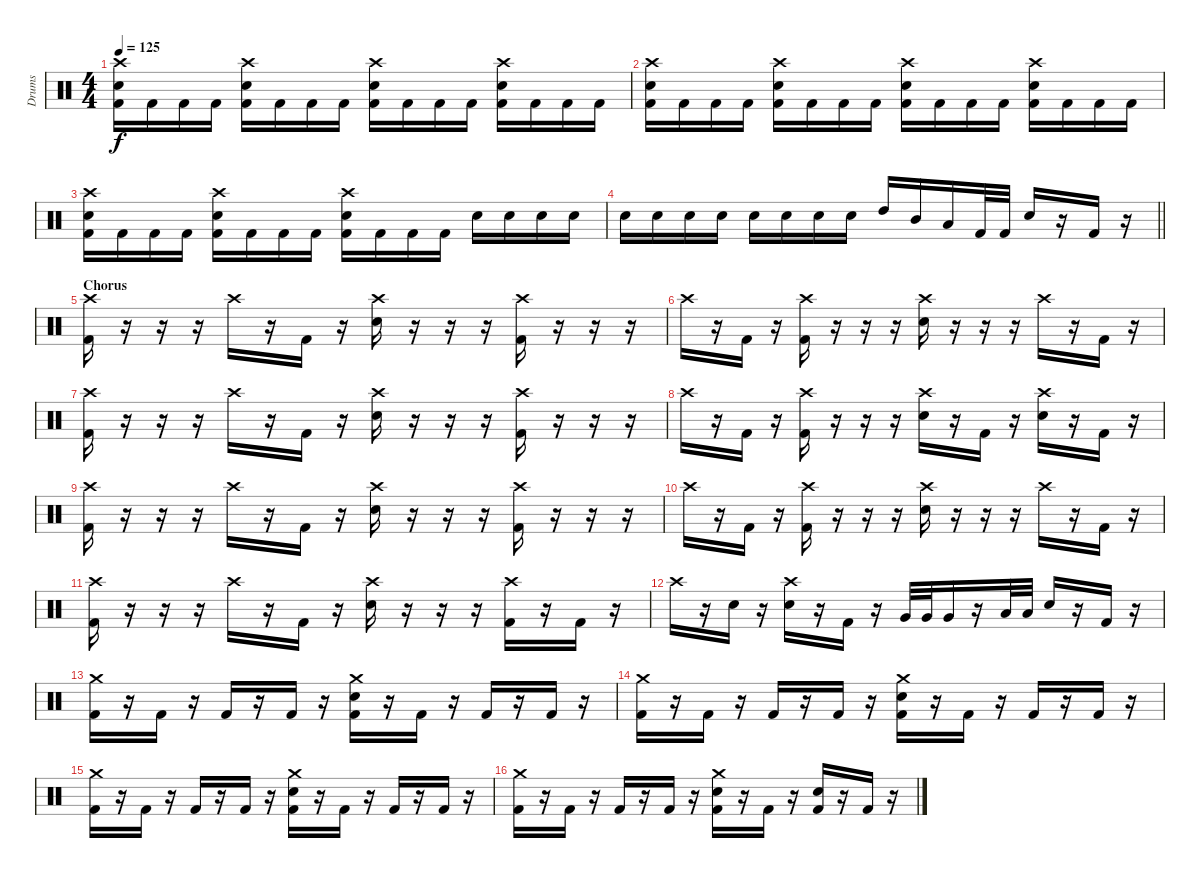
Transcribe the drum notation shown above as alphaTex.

\track ("Drums" "Drums") {instrument percussion}
\staff {score}
\articulation defaults
\ts (4 4)
\tempo 125
\clef neutral
\ks c
("Crash high (hit)" "Electric Snare (hit)" "Kick (hit) 2").16{dy f} "Kick (hit) 2".16 "Kick (hit) 2".16 "Kick (hit) 2".16 ("Crash high (hit)" "Electric Snare (hit)" "Kick (hit) 2").16 "Kick (hit) 2".16 "Kick (hit) 2".16 "Kick (hit) 2".16 ("Crash high (hit)" "Electric Snare (hit)" "Kick (hit) 2").16 "Kick (hit) 2".16 "Kick (hit) 2".16 "Kick (hit) 2".16 ("Crash high (hit)" "Electric Snare (hit)" "Kick (hit) 2").16 "Kick (hit) 2".16 "Kick (hit) 2".16 "Kick (hit) 2".16 |
("Crash high (hit)" "Electric Snare (hit)" "Kick (hit) 2").16 "Kick (hit) 2".16 "Kick (hit) 2".16 "Kick (hit) 2".16 ("Crash high (hit)" "Electric Snare (hit)" "Kick (hit) 2").16 "Kick (hit) 2".16 "Kick (hit) 2".16 "Kick (hit) 2".16 ("Crash high (hit)" "Electric Snare (hit)" "Kick (hit) 2").16 "Kick (hit) 2".16 "Kick (hit) 2".16 "Kick (hit) 2".16 ("Crash high (hit)" "Electric Snare (hit)" "Kick (hit) 2").16 "Kick (hit) 2".16 "Kick (hit) 2".16 "Kick (hit) 2".16 |
("Crash high (hit)" "Electric Snare (hit)" "Kick (hit) 2").16 "Kick (hit) 2".16 "Kick (hit) 2".16 "Kick (hit) 2".16 ("Crash high (hit)" "Electric Snare (hit)" "Kick (hit) 2").16 "Kick (hit) 2".16 "Kick (hit) 2".16 "Kick (hit) 2".16 ("Crash high (hit)" "Electric Snare (hit)" "Kick (hit) 2").16 "Kick (hit) 2".16 "Kick (hit) 2".16 "Kick (hit) 2".16 "Electric Snare (hit)".16 "Electric Snare (hit)".16 "Electric Snare (hit)".16 "Electric Snare (hit)".16 |
\barLineRight lightlight "Electric Snare (hit)".16 "Electric Snare (hit)".16 "Electric Snare (hit)".16 "Electric Snare (hit)".16 "Electric Snare (hit)".16 "Electric Snare (hit)".16 "Electric Snare (hit)".16 "Electric Snare (hit)".16 "High Tom (hit)".16 "Mid Tom (hit)".16 "Low Tom (hit)".16 "Kick (hit) 2".32 "Kick (hit) 2".32 "Electric Snare (hit)".16
r.16 "Kick (hit) 2".16 r.16 |
\section ("" "Chorus")
("Crash high (hit)" "Kick (hit) 2").16 r.16 r.16 r.16 "Crash high (hit)".16 r.16 "Kick (hit) 2".16 r.16 ("Crash high (hit)" "Electric Snare (hit)").16 r.16 r.16 r.16 ("Crash high (hit)" "Kick (hit) 2").16 r.16 r.16 r.16 |
"Crash high (hit)".16 r.16 "Kick (hit) 2".16 r.16 ("Crash high (hit)" "Kick (hit) 2").16 r.16 r.16 r.16 ("Crash high (hit)" "Electric Snare (hit)").16 r.16 r.16 r.16 "Crash high (hit)".16 r.16 "Kick (hit) 2".16 r.16 |
("Crash high (hit)" "Kick (hit) 2").16 r.16 r.16 r.16 "Crash high (hit)".16 r.16 "Kick (hit) 2".16 r.16 ("Crash high (hit)" "Electric Snare (hit)").16 r.16 r.16 r.16 ("Crash high (hit)" "Kick (hit) 2").16 r.16 r.16 r.16 |
"Crash high (hit)".16 r.16 "Kick (hit) 2".16 r.16 ("Crash high (hit)" "Kick (hit) 2").16 r.16 r.16 r.16 ("Crash high (hit)" "Electric Snare (hit)").16 r.16 "Kick (hit) 2".16 r.16 ("Crash high (hit)" "Electric Snare (hit)").16 r.16 "Kick (hit) 2".16 r.16 |
("Crash high (hit)" "Kick (hit) 2").16 r.16 r.16 r.16 "Crash high (hit)".16 r.16 "Kick (hit) 2".16 r.16 ("Crash high (hit)" "Electric Snare (hit)").16 r.16 r.16 r.16 ("Crash high (hit)" "Kick (hit) 2").16 r.16 r.16 r.16 |
"Crash high (hit)".16 r.16 "Kick (hit) 2".16 r.16 ("Crash high (hit)" "Kick (hit) 2").16 r.16 r.16 r.16 ("Crash high (hit)" "Electric Snare (hit)").16 r.16 r.16 r.16 "Crash high (hit)".16 r.16 "Kick (hit) 2".16 r.16 |
("Crash high (hit)" "Kick (hit) 2").16 r.16 r.16 r.16 "Crash high (hit)".16 r.16 "Kick (hit) 2".16 r.16 ("Crash high (hit)" "Electric Snare (hit)").16 r.16 r.16 r.16 ("Crash high (hit)" "Kick (hit) 2").16 r.16 "Kick (hit) 2".16 r.16 |
"Crash high (hit)".16 r.16 "Electric Snare (hit)".16 r.16 ("Crash high (hit)" "Electric Snare (hit)").16 r.16 "Kick (hit) 2".16 r.16 "Very Low Tom (hit)".32 "Very Low Tom (hit)".32 "Very Low Tom (hit)".16 r.16 "Low Tom (hit)".32 "Low Tom (hit)".32 "Electric Snare (hit)".16 r.16 "Kick (hit) 2".16 r.16 |
("Crash medium (hit)" "Kick (hit) 2").16 r.16 "Kick (hit) 2".16 r.16 "Kick (hit) 2".16 r.16 "Kick (hit) 2".16 r.16 ("Crash medium (hit)" "Electric Snare (hit)" "Kick (hit) 2").16 r.16 "Kick (hit) 2".16 r.16 "Kick (hit) 2".16 r.16 "Kick (hit) 2".16 r.16 |
("Crash medium (hit)" "Kick (hit) 2").16 r.16 "Kick (hit) 2".16 r.16 "Kick (hit) 2".16 r.16 "Kick (hit) 2".16 r.16 ("Crash medium (hit)" "Electric Snare (hit)" "Kick (hit) 2").16 r.16 "Kick (hit) 2".16 r.16 "Kick (hit) 2".16 r.16 "Kick (hit) 2".16 r.16 |
("Crash medium (hit)" "Kick (hit) 2").16 r.16 "Kick (hit) 2".16 r.16 "Kick (hit) 2".16 r.16 "Kick (hit) 2".16 r.16 ("Crash medium (hit)" "Electric Snare (hit)" "Kick (hit) 2").16 r.16 "Kick (hit) 2".16 r.16 "Kick (hit) 2".16 r.16 "Kick (hit) 2".16 r.16 |
("Crash medium (hit)" "Kick (hit) 2").16 r.16 "Kick (hit) 2".16 r.16 "Kick (hit) 2".16 r.16 "Kick (hit) 2".16 r.16 ("Crash medium (hit)" "Electric Snare (hit)" "Kick (hit) 2").16 r.16 "Kick (hit) 2".16 r.16 ("Electric Snare (hit)" "Kick (hit) 2").16 r.16 "Kick (hit) 2".16 r.16
